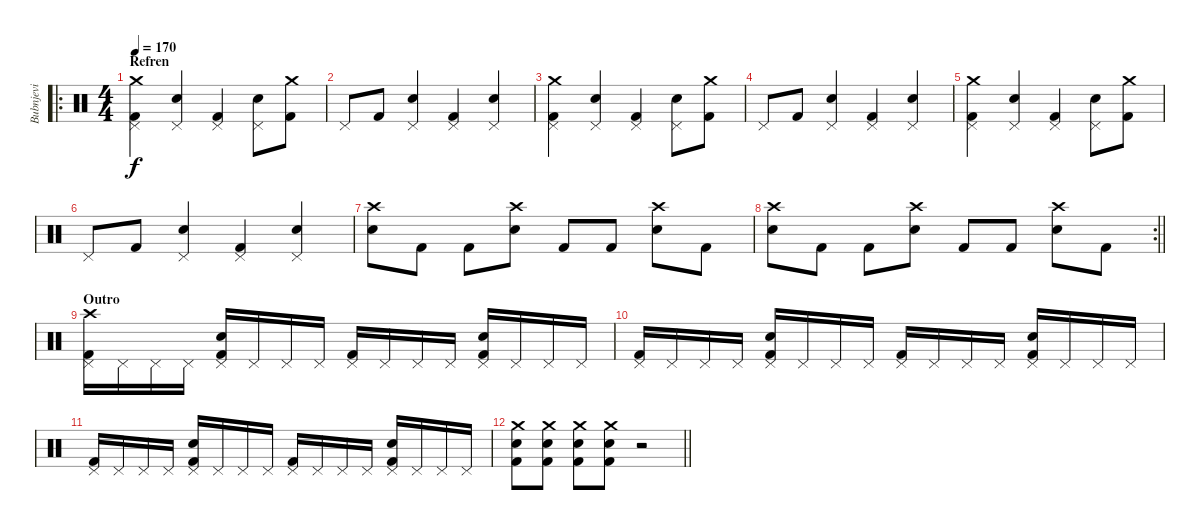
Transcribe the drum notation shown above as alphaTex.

\track ("Bubnjevi" "Bubnjevi") {instrument percussion}
\staff {score}
\articulation defaults
\ro
\ts (4 4)
\section ("" "Refren")
\tempo 170
\clef neutral
\ks c
("Crash medium (hit)" "Pedal Hi-Hat (hit)" "Kick (hit) 2").4{dy f} ("Pedal Hi-Hat (hit)" "Electric Snare (hit)").4 ("Pedal Hi-Hat (hit)" "Kick (hit) 2").4 ("Pedal Hi-Hat (hit)" "Electric Snare (hit)").8 ("Crash medium (hit)" "Kick (hit) 2").8 |
"Pedal Hi-Hat (hit)".8 "Kick (hit) 2".8 ("Pedal Hi-Hat (hit)" "Electric Snare (hit)").4 ("Pedal Hi-Hat (hit)" "Kick (hit) 2").4 ("Pedal Hi-Hat (hit)" "Electric Snare (hit)").4 |
("Crash medium (hit)" "Pedal Hi-Hat (hit)" "Kick (hit) 2").4 ("Pedal Hi-Hat (hit)" "Electric Snare (hit)").4 ("Pedal Hi-Hat (hit)" "Kick (hit) 2").4 ("Pedal Hi-Hat (hit)" "Electric Snare (hit)").8 ("Crash medium (hit)" "Kick (hit) 2").8 |
"Pedal Hi-Hat (hit)".8 "Kick (hit) 2".8 ("Pedal Hi-Hat (hit)" "Electric Snare (hit)").4 ("Pedal Hi-Hat (hit)" "Kick (hit) 2").4 ("Pedal Hi-Hat (hit)" "Electric Snare (hit)").4 |
("Crash medium (hit)" "Pedal Hi-Hat (hit)" "Kick (hit) 2").4 ("Pedal Hi-Hat (hit)" "Electric Snare (hit)").4 ("Pedal Hi-Hat (hit)" "Kick (hit) 2").4 ("Pedal Hi-Hat (hit)" "Electric Snare (hit)").8 ("Crash medium (hit)" "Kick (hit) 2").8 |
"Pedal Hi-Hat (hit)".8 "Kick (hit) 2".8 ("Pedal Hi-Hat (hit)" "Electric Snare (hit)").4 ("Pedal Hi-Hat (hit)" "Kick (hit) 2").4 ("Pedal Hi-Hat (hit)" "Electric Snare (hit)").4 |
("Crash high (hit)" "Electric Snare (hit)").8 "Kick (hit) 2".8 "Kick (hit) 2".8 ("Crash high (hit)" "Electric Snare (hit)").8 "Kick (hit) 2".8 "Kick (hit) 2".8 ("Crash high (hit)" "Electric Snare (hit)").8 "Kick (hit) 2".8 |
\rc 2
\barLineRight lightlight
("Crash high (hit)" "Electric Snare (hit)").8 "Kick (hit) 2".8 "Kick (hit) 2".8 ("Crash high (hit)" "Electric Snare (hit)").8 "Kick (hit) 2".8 "Kick (hit) 2".8 ("Crash high (hit)" "Electric Snare (hit)").8 "Kick (hit) 2".8 |
\section ("" "Outro")
("Crash high (hit)" "Pedal Hi-Hat (hit)" "Kick (hit) 2").16 "Pedal Hi-Hat (hit)".16 "Pedal Hi-Hat (hit)".16 "Pedal Hi-Hat (hit)".16 ("Pedal Hi-Hat (hit)" "Electric Snare (hit)" "Kick (hit) 2").16 "Pedal Hi-Hat (hit)".16 "Pedal Hi-Hat (hit)".16 "Pedal Hi-Hat (hit)".16 ("Pedal Hi-Hat (hit)" "Kick (hit) 2").16 "Pedal Hi-Hat (hit)".16 "Pedal Hi-Hat (hit)".16 "Pedal Hi-Hat (hit)".16 ("Pedal Hi-Hat (hit)" "Electric Snare (hit)" "Kick (hit) 2").16 "Pedal Hi-Hat (hit)".16 "Pedal Hi-Hat (hit)".16 "Pedal Hi-Hat (hit)".16 |
("Pedal Hi-Hat (hit)" "Kick (hit) 2").16 "Pedal Hi-Hat (hit)".16 "Pedal Hi-Hat (hit)".16 "Pedal Hi-Hat (hit)".16 ("Pedal Hi-Hat (hit)" "Electric Snare (hit)" "Kick (hit) 2").16 "Pedal Hi-Hat (hit)".16 "Pedal Hi-Hat (hit)".16 "Pedal Hi-Hat (hit)".16 ("Pedal Hi-Hat (hit)" "Kick (hit) 2").16 "Pedal Hi-Hat (hit)".16 "Pedal Hi-Hat (hit)".16 "Pedal Hi-Hat (hit)".16 ("Pedal Hi-Hat (hit)" "Electric Snare (hit)" "Kick (hit) 2").16 "Pedal Hi-Hat (hit)".16 "Pedal Hi-Hat (hit)".16 "Pedal Hi-Hat (hit)".16 |
("Pedal Hi-Hat (hit)" "Kick (hit) 2").16 "Pedal Hi-Hat (hit)".16 "Pedal Hi-Hat (hit)".16 "Pedal Hi-Hat (hit)".16 ("Pedal Hi-Hat (hit)" "Electric Snare (hit)" "Kick (hit) 2").16 "Pedal Hi-Hat (hit)".16 "Pedal Hi-Hat (hit)".16 "Pedal Hi-Hat (hit)".16 ("Pedal Hi-Hat (hit)" "Kick (hit) 2").16 "Pedal Hi-Hat (hit)".16 "Pedal Hi-Hat (hit)".16 "Pedal Hi-Hat (hit)".16 ("Pedal Hi-Hat (hit)" "Electric Snare (hit)" "Kick (hit) 2").16 "Pedal Hi-Hat (hit)".16 "Pedal Hi-Hat (hit)".16 "Pedal Hi-Hat (hit)".16 |
\barLineRight lightlight
("Crash medium (hit)" "Electric Snare (hit)" "Kick (hit) 2").8 ("Crash medium (hit)" "Electric Snare (hit)" "Kick (hit) 2").8 ("Crash medium (hit)" "Electric Snare (hit)" "Kick (hit) 2").8 ("Crash medium (hit)" "Electric Snare (hit)" "Kick (hit) 2").8 r.2
